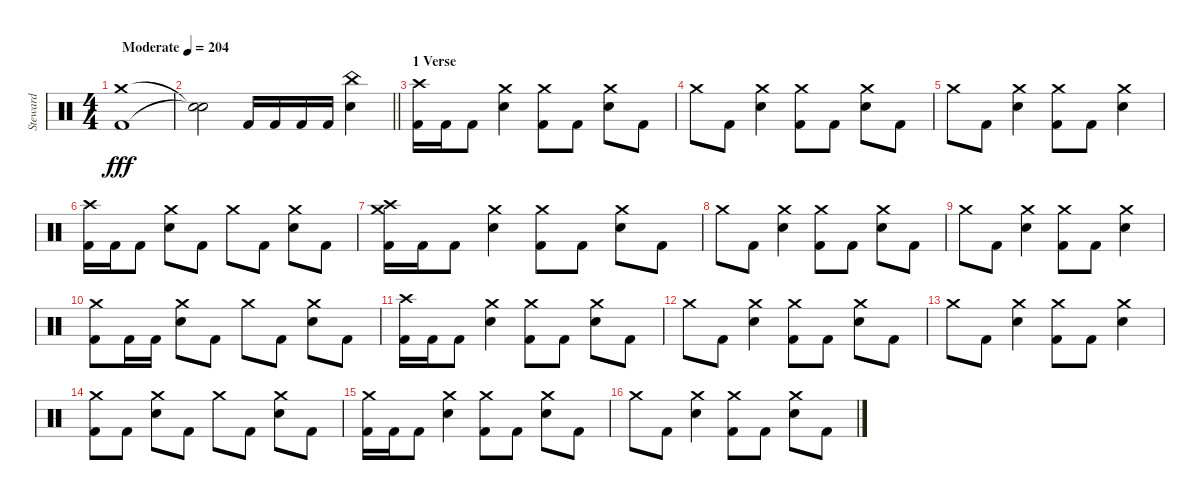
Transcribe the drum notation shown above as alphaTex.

\track ("Steward" "Steward") {instrument percussion}
\staff {score}
\articulation defaults
\ts (4 4)
\tempo (204 "Moderate")
\clef neutral
\ks c
("Crash medium (hit)" "Kick (hit) 2").1{dy fff} |
\barLineRight lightlight
("Snare (hit)"{t} "Snare (hit)"{t}).2 "Kick (hit) 2".16 "Kick (hit) 2".16 "Kick (hit) 2".16 "Kick (hit) 2".16 ("China (hit)" "Electric Snare (hit)").4 |
\section ("" "1 Verse")
("Crash high (hit)" "Kick (hit) 2").16 "Kick (hit) 2".16 "Kick (hit) 2".8 ("Crash medium (hit)" "Electric Snare (hit)").4 ("Crash medium (hit)" "Kick (hit) 2").8 "Kick (hit) 2".8 ("Crash medium (hit)" "Electric Snare (hit)").8 "Kick (hit) 2".8 |
"Crash medium (hit)".8 "Kick (hit) 2".8 ("Crash medium (hit)" "Electric Snare (hit)").4 ("Crash medium (hit)" "Kick (hit) 2").8 "Kick (hit) 2".8 ("Crash medium (hit)" "Electric Snare (hit)").8 "Kick (hit) 2".8 |
"Crash medium (hit)".8 "Kick (hit) 2".8 ("Crash medium (hit)" "Electric Snare (hit)").4 ("Crash medium (hit)" "Kick (hit) 2").8 "Kick (hit) 2".8 ("Crash medium (hit)" "Electric Snare (hit)").4 |
("Crash high (hit)" "Kick (hit) 2").16 "Kick (hit) 2".16 "Kick (hit) 2".8 ("Crash medium (hit)" "Electric Snare (hit)").8 "Kick (hit) 2".8 "Crash medium (hit)".8 "Kick (hit) 2".8 ("Crash medium (hit)" "Electric Snare (hit)").8 "Kick (hit) 2".8 |
("Crash high (hit)" "Crash medium (hit)" "Kick (hit) 2").16 "Kick (hit) 2".16 "Kick (hit) 2".8 ("Crash medium (hit)" "Electric Snare (hit)").4 ("Crash medium (hit)" "Kick (hit) 2").8 "Kick (hit) 2".8 ("Crash medium (hit)" "Electric Snare (hit)").8 "Kick (hit) 2".8 |
"Crash medium (hit)".8 "Kick (hit) 2".8 ("Crash medium (hit)" "Electric Snare (hit)").4 ("Crash medium (hit)" "Kick (hit) 2").8 "Kick (hit) 2".8 ("Crash medium (hit)" "Electric Snare (hit)").8 "Kick (hit) 2".8 |
"Crash medium (hit)".8 "Kick (hit) 2".8 ("Crash medium (hit)" "Electric Snare (hit)").4 ("Crash medium (hit)" "Kick (hit) 2").8 "Kick (hit) 2".8 ("Crash medium (hit)" "Electric Snare (hit)").4 |
("Crash medium (hit)" "Kick (hit) 2").8 "Kick (hit) 2".16 "Kick (hit) 2".16 ("Crash medium (hit)" "Electric Snare (hit)").8 "Kick (hit) 2".8 "Crash medium (hit)".8 "Kick (hit) 2".8 ("Crash medium (hit)" "Electric Snare (hit)").8 "Kick (hit) 2".8 |
("Crash high (hit)" "Kick (hit) 2").16 "Kick (hit) 2".16 "Kick (hit) 2".8 ("Crash medium (hit)" "Electric Snare (hit)").4 ("Crash medium (hit)" "Kick (hit) 2").8 "Kick (hit) 2".8 ("Crash medium (hit)" "Electric Snare (hit)").8 "Kick (hit) 2".8 |
"Crash medium (hit)".8 "Kick (hit) 2".8 ("Crash medium (hit)" "Electric Snare (hit)").4 ("Crash medium (hit)" "Kick (hit) 2").8 "Kick (hit) 2".8 ("Crash medium (hit)" "Electric Snare (hit)").8 "Kick (hit) 2".8 |
"Crash medium (hit)".8 "Kick (hit) 2".8 ("Crash medium (hit)" "Electric Snare (hit)").4 ("Crash medium (hit)" "Kick (hit) 2").8 "Kick (hit) 2".8 ("Crash medium (hit)" "Electric Snare (hit)").4 |
("Crash medium (hit)" "Kick (hit) 2").8 "Kick (hit) 2".8 ("Crash medium (hit)" "Electric Snare (hit)").8 "Kick (hit) 2".8 "Crash medium (hit)".8 "Kick (hit) 2".8 ("Crash medium (hit)" "Electric Snare (hit)").8 "Kick (hit) 2".8 |
("Crash medium (hit)" "Kick (hit) 2").16 "Kick (hit) 2".16 "Kick (hit) 2".8 ("Crash medium (hit)" "Electric Snare (hit)").4 ("Crash medium (hit)" "Kick (hit) 2").8 "Kick (hit) 2".8 ("Crash medium (hit)" "Electric Snare (hit)").8 "Kick (hit) 2".8 |
"Crash medium (hit)".8 "Kick (hit) 2".8 ("Crash medium (hit)" "Electric Snare (hit)").4 ("Crash medium (hit)" "Kick (hit) 2").8 "Kick (hit) 2".8 ("Crash medium (hit)" "Electric Snare (hit)").8 "Kick (hit) 2".8
